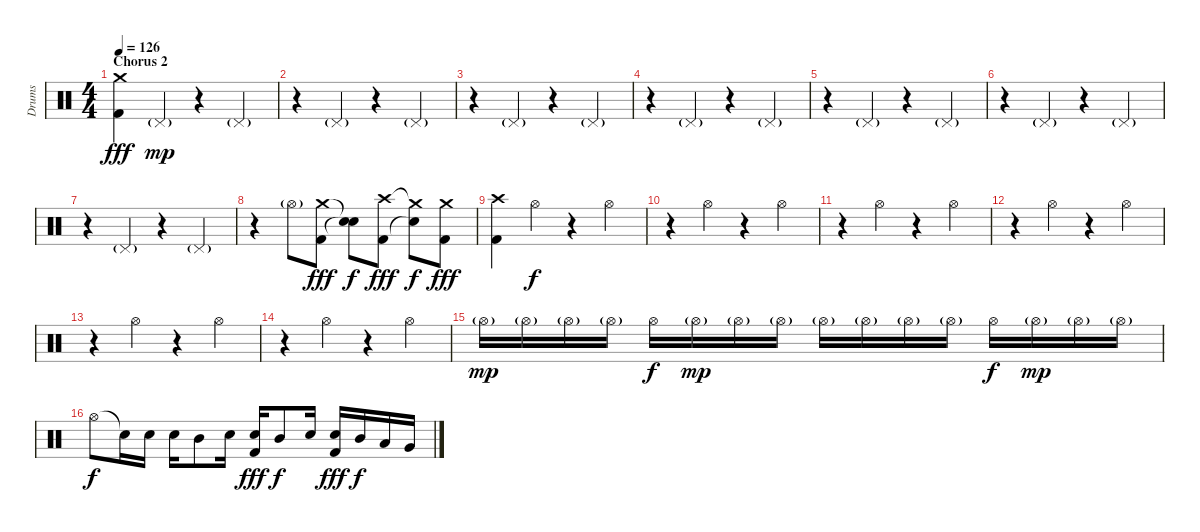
\track ("Drums" "Drums") {instrument percussion}
\staff {score}
\articulation defaults
\ts (4 4)
\section ("" "Chorus 2")
\tempo 126
\clef neutral
\ks c
("Crash medium (hit)" "Kick (hit) 2").4{dy fff} "Pedal Hi-Hat (hit)"{g}.4{dy mp} r.4 "Pedal Hi-Hat (hit)"{g}.4 |
r.4 "Pedal Hi-Hat (hit)"{g}.4 r.4 "Pedal Hi-Hat (hit)"{g}.4 |
r.4 "Pedal Hi-Hat (hit)"{g}.4 r.4 "Pedal Hi-Hat (hit)"{g}.4 |
r.4 "Pedal Hi-Hat (hit)"{g}.4 r.4 "Pedal Hi-Hat (hit)"{g}.4 |
r.4 "Pedal Hi-Hat (hit)"{g}.4 r.4 "Pedal Hi-Hat (hit)"{g}.4 |
r.4 "Pedal Hi-Hat (hit)"{g}.4 r.4 "Pedal Hi-Hat (hit)"{g}.4 |
r.4 "Pedal Hi-Hat (hit)"{g}.4 r.4 "Pedal Hi-Hat (hit)"{g}.4 |
r.4 "Hi-Hat (open)"{g}.8 ("Crash medium (hit)" "Kick (hit) 2").8{dy fff} ("Snare (hit)"{t} "Snare (hit)"{t}).8{dy f} ("Crash high (hit)" "Kick (hit) 2").8{dy fff} ("Crash medium (hit)"{t} "Snare (hit)"{t}).8{dy f} ("Crash medium (hit)" "Kick (hit) 2").8{dy fff} |
("Crash high (hit)" "Kick (hit) 2").4 "Hi-Hat (open)".4{dy f} r.4 "Hi-Hat (open)".4 |
r.4 "Hi-Hat (open)".4 r.4 "Hi-Hat (open)".4 |
r.4 "Hi-Hat (open)".4 r.4 "Hi-Hat (open)".4 |
r.4 "Hi-Hat (open)".4 r.4 "Hi-Hat (open)".4 |
r.4 "Hi-Hat (open)".4 r.4 "Hi-Hat (open)".4 |
r.4 "Hi-Hat (open)".4 r.4 "Hi-Hat (open)".4 |
"Hi-Hat (open)"{g}.16{dy mp} "Hi-Hat (open)"{g}.16 "Hi-Hat (open)"{g}.16 "Hi-Hat (open)"{g}.16 "Hi-Hat (open)".16{dy f} "Hi-Hat (open)"{g}.16{dy mp} "Hi-Hat (open)"{g}.16 "Hi-Hat (open)"{g}.16 "Hi-Hat (open)"{g}.16 "Hi-Hat (open)"{g}.16 "Hi-Hat (open)"{g}.16 "Hi-Hat (open)"{g}.16 "Hi-Hat (open)".16{dy f} "Hi-Hat (open)"{g}.16{dy mp} "Hi-Hat (open)"{g}.16 "Hi-Hat (open)"{g}.16 |
"Hi-Hat (open)".8{dy f} "Snare (hit)"{t}.16 "Snare (hit) 2".16 "Snare (hit) 2".16 "Mid Tom (hit)".8 "Snare (hit) 2".16 ("Snare (hit) 2" "Kick (hit) 2").16{dy fff} "Mid Tom (hit)".8{dy f} "Snare (hit) 2".16 ("Snare (hit) 2" "Kick (hit) 2").16{dy fff} "Mid Tom (hit)".16{dy f} "Low Tom (hit)".16 "Very Low Tom (hit)".16
